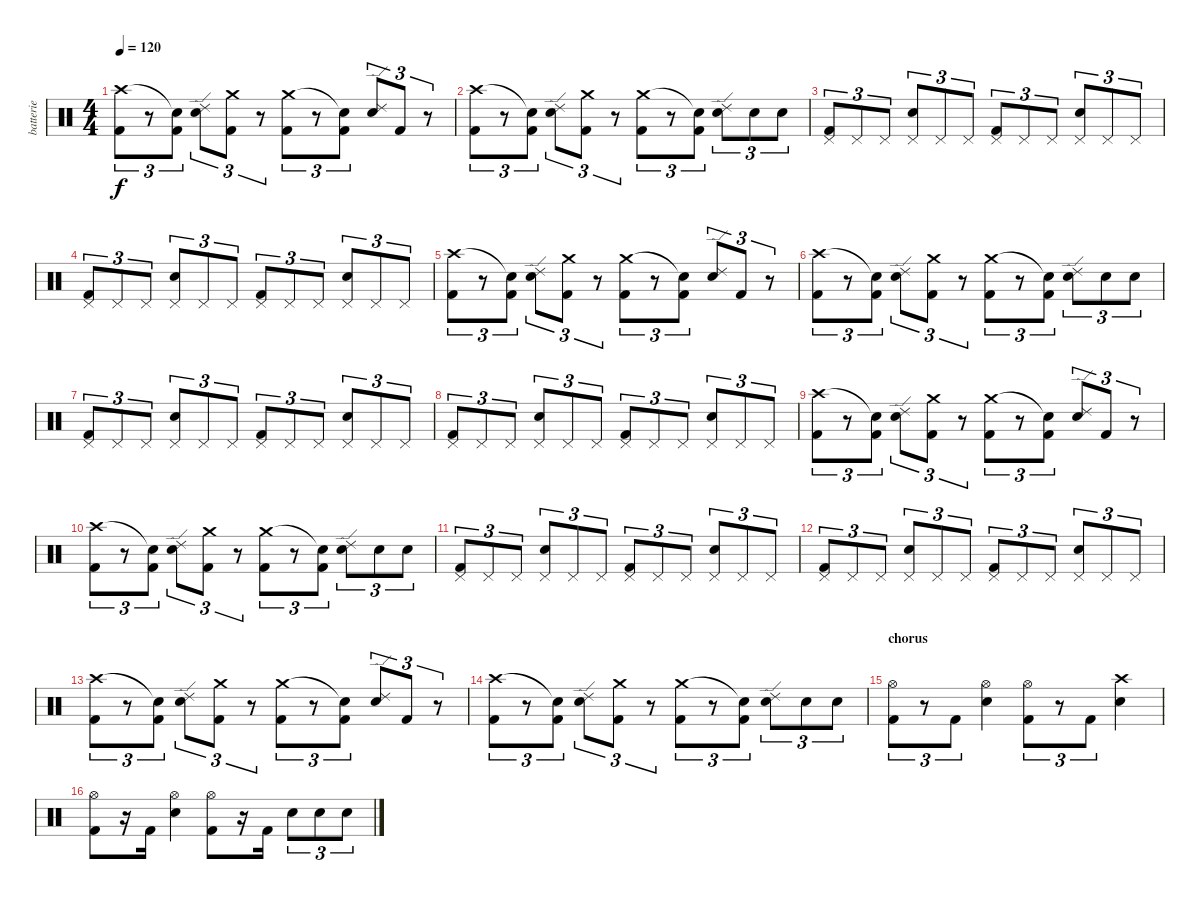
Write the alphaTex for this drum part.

\track ("batterie" "batterie") {instrument percussion}
\staff {score}
\articulation defaults
\ts (4 4)
\tempo 120
\clef neutral
\ks c
("Crash high (hit)" "Kick (hit) 2").8{tu (3 2) dy f} r.8{tu (3 2)} ("Snare (hit)"{t} "Kick (hit) 2").8{tu (3 2)} ("Snare (hit) 2" "Ride (edge) 2").8{tu (3 2)} ("Crash medium (hit)" "Kick (hit) 2").8{tu (3 2)} r.8{tu (3 2)} ("Crash medium (hit)" "Kick (hit) 2").8{tu (3 2)} r.8{tu (3 2)} ("Snare (hit)"{t} "Kick (hit) 2").8{tu (3 2)} ("Snare (hit) 2" "Ride (edge) 2").8{tu (3 2)} "Kick (hit) 2".8{tu (3 2)} r.8{tu (3 2)} |
("Crash high (hit)" "Kick (hit) 2").8{tu (3 2)} r.8{tu (3 2)} ("Snare (hit)"{t} "Kick (hit) 2").8{tu (3 2)} ("Snare (hit) 2" "Ride (edge) 2").8{tu (3 2)} ("Crash medium (hit)" "Kick (hit) 2").8{tu (3 2)} r.8{tu (3 2)} ("Crash medium (hit)" "Kick (hit) 2").8{tu (3 2)} r.8{tu (3 2)} ("Snare (hit)"{t} "Kick (hit) 2").8{tu (3 2)} ("Snare (hit) 2" "Ride (edge) 2").8{tu (3 2)} "Snare (hit) 2".8{tu (3 2)} "Snare (hit) 2".8{tu (3 2)} |
("Kick (hit) 2" "Pedal Hi-Hat (hit)").8{tu (3 2)} "Pedal Hi-Hat (hit)".8{tu (3 2)} "Pedal Hi-Hat (hit)".8{tu (3 2)} ("Snare (hit) 2" "Pedal Hi-Hat (hit)").8{tu (3 2)} "Pedal Hi-Hat (hit)".8{tu (3 2)} "Pedal Hi-Hat (hit)".8{tu (3 2)} ("Kick (hit) 2" "Pedal Hi-Hat (hit)").8{tu (3 2)} "Pedal Hi-Hat (hit)".8{tu (3 2)} "Pedal Hi-Hat (hit)".8{tu (3 2)} ("Snare (hit) 2" "Pedal Hi-Hat (hit)").8{tu (3 2)} "Pedal Hi-Hat (hit)".8{tu (3 2)} "Pedal Hi-Hat (hit)".8{tu (3 2)} |
("Kick (hit) 2" "Pedal Hi-Hat (hit)").8{tu (3 2)} "Pedal Hi-Hat (hit)".8{tu (3 2)} "Pedal Hi-Hat (hit)".8{tu (3 2)} ("Snare (hit) 2" "Pedal Hi-Hat (hit)").8{tu (3 2)} "Pedal Hi-Hat (hit)".8{tu (3 2)} "Pedal Hi-Hat (hit)".8{tu (3 2)} ("Kick (hit) 2" "Pedal Hi-Hat (hit)").8{tu (3 2)} "Pedal Hi-Hat (hit)".8{tu (3 2)} "Pedal Hi-Hat (hit)".8{tu (3 2)} ("Snare (hit) 2" "Pedal Hi-Hat (hit)").8{tu (3 2)} "Pedal Hi-Hat (hit)".8{tu (3 2)} "Pedal Hi-Hat (hit)".8{tu (3 2)} |
("Crash high (hit)" "Kick (hit) 2").8{tu (3 2)} r.8{tu (3 2)} ("Snare (hit)"{t} "Kick (hit) 2").8{tu (3 2)} ("Snare (hit) 2" "Ride (edge) 2").8{tu (3 2)} ("Crash medium (hit)" "Kick (hit) 2").8{tu (3 2)} r.8{tu (3 2)} ("Crash medium (hit)" "Kick (hit) 2").8{tu (3 2)} r.8{tu (3 2)} ("Snare (hit)"{t} "Kick (hit) 2").8{tu (3 2)} ("Snare (hit) 2" "Ride (edge) 2").8{tu (3 2)} "Kick (hit) 2".8{tu (3 2)} r.8{tu (3 2)} |
("Crash high (hit)" "Kick (hit) 2").8{tu (3 2)} r.8{tu (3 2)} ("Snare (hit)"{t} "Kick (hit) 2").8{tu (3 2)} ("Snare (hit) 2" "Ride (edge) 2").8{tu (3 2)} ("Crash medium (hit)" "Kick (hit) 2").8{tu (3 2)} r.8{tu (3 2)} ("Crash medium (hit)" "Kick (hit) 2").8{tu (3 2)} r.8{tu (3 2)} ("Snare (hit)"{t} "Kick (hit) 2").8{tu (3 2)} ("Snare (hit) 2" "Ride (edge) 2").8{tu (3 2)} "Snare (hit) 2".8{tu (3 2)} "Snare (hit) 2".8{tu (3 2)} |
("Kick (hit) 2" "Pedal Hi-Hat (hit)").8{tu (3 2)} "Pedal Hi-Hat (hit)".8{tu (3 2)} "Pedal Hi-Hat (hit)".8{tu (3 2)} ("Snare (hit) 2" "Pedal Hi-Hat (hit)").8{tu (3 2)} "Pedal Hi-Hat (hit)".8{tu (3 2)} "Pedal Hi-Hat (hit)".8{tu (3 2)} ("Kick (hit) 2" "Pedal Hi-Hat (hit)").8{tu (3 2)} "Pedal Hi-Hat (hit)".8{tu (3 2)} "Pedal Hi-Hat (hit)".8{tu (3 2)} ("Snare (hit) 2" "Pedal Hi-Hat (hit)").8{tu (3 2)} "Pedal Hi-Hat (hit)".8{tu (3 2)} "Pedal Hi-Hat (hit)".8{tu (3 2)} |
("Kick (hit) 2" "Pedal Hi-Hat (hit)").8{tu (3 2)} "Pedal Hi-Hat (hit)".8{tu (3 2)} "Pedal Hi-Hat (hit)".8{tu (3 2)} ("Snare (hit) 2" "Pedal Hi-Hat (hit)").8{tu (3 2)} "Pedal Hi-Hat (hit)".8{tu (3 2)} "Pedal Hi-Hat (hit)".8{tu (3 2)} ("Kick (hit) 2" "Pedal Hi-Hat (hit)").8{tu (3 2)} "Pedal Hi-Hat (hit)".8{tu (3 2)} "Pedal Hi-Hat (hit)".8{tu (3 2)} ("Snare (hit) 2" "Pedal Hi-Hat (hit)").8{tu (3 2)} "Pedal Hi-Hat (hit)".8{tu (3 2)} "Pedal Hi-Hat (hit)".8{tu (3 2)} |
("Crash high (hit)" "Kick (hit) 2").8{tu (3 2)} r.8{tu (3 2)} ("Snare (hit)"{t} "Kick (hit) 2").8{tu (3 2)} ("Snare (hit) 2" "Ride (edge) 2").8{tu (3 2)} ("Crash medium (hit)" "Kick (hit) 2").8{tu (3 2)} r.8{tu (3 2)} ("Crash medium (hit)" "Kick (hit) 2").8{tu (3 2)} r.8{tu (3 2)} ("Snare (hit)"{t} "Kick (hit) 2").8{tu (3 2)} ("Snare (hit) 2" "Ride (edge) 2").8{tu (3 2)} "Kick (hit) 2".8{tu (3 2)} r.8{tu (3 2)} |
("Crash high (hit)" "Kick (hit) 2").8{tu (3 2)} r.8{tu (3 2)} ("Snare (hit)"{t} "Kick (hit) 2").8{tu (3 2)} ("Snare (hit) 2" "Ride (edge) 2").8{tu (3 2)} ("Crash medium (hit)" "Kick (hit) 2").8{tu (3 2)} r.8{tu (3 2)} ("Crash medium (hit)" "Kick (hit) 2").8{tu (3 2)} r.8{tu (3 2)} ("Snare (hit)"{t} "Kick (hit) 2").8{tu (3 2)} ("Snare (hit) 2" "Ride (edge) 2").8{tu (3 2)} "Snare (hit) 2".8{tu (3 2)} "Snare (hit) 2".8{tu (3 2)} |
("Kick (hit) 2" "Pedal Hi-Hat (hit)").8{tu (3 2)} "Pedal Hi-Hat (hit)".8{tu (3 2)} "Pedal Hi-Hat (hit)".8{tu (3 2)} ("Snare (hit) 2" "Pedal Hi-Hat (hit)").8{tu (3 2)} "Pedal Hi-Hat (hit)".8{tu (3 2)} "Pedal Hi-Hat (hit)".8{tu (3 2)} ("Kick (hit) 2" "Pedal Hi-Hat (hit)").8{tu (3 2)} "Pedal Hi-Hat (hit)".8{tu (3 2)} "Pedal Hi-Hat (hit)".8{tu (3 2)} ("Snare (hit) 2" "Pedal Hi-Hat (hit)").8{tu (3 2)} "Pedal Hi-Hat (hit)".8{tu (3 2)} "Pedal Hi-Hat (hit)".8{tu (3 2)} |
("Kick (hit) 2" "Pedal Hi-Hat (hit)").8{tu (3 2)} "Pedal Hi-Hat (hit)".8{tu (3 2)} "Pedal Hi-Hat (hit)".8{tu (3 2)} ("Snare (hit) 2" "Pedal Hi-Hat (hit)").8{tu (3 2)} "Pedal Hi-Hat (hit)".8{tu (3 2)} "Pedal Hi-Hat (hit)".8{tu (3 2)} ("Kick (hit) 2" "Pedal Hi-Hat (hit)").8{tu (3 2)} "Pedal Hi-Hat (hit)".8{tu (3 2)} "Pedal Hi-Hat (hit)".8{tu (3 2)} ("Snare (hit) 2" "Pedal Hi-Hat (hit)").8{tu (3 2)} "Pedal Hi-Hat (hit)".8{tu (3 2)} "Pedal Hi-Hat (hit)".8{tu (3 2)} |
("Crash high (hit)" "Kick (hit) 2").8{tu (3 2)} r.8{tu (3 2)} ("Snare (hit)"{t} "Kick (hit) 2").8{tu (3 2)} ("Snare (hit) 2" "Ride (edge) 2").8{tu (3 2)} ("Crash medium (hit)" "Kick (hit) 2").8{tu (3 2)} r.8{tu (3 2)} ("Crash medium (hit)" "Kick (hit) 2").8{tu (3 2)} r.8{tu (3 2)} ("Snare (hit)"{t} "Kick (hit) 2").8{tu (3 2)} ("Snare (hit) 2" "Ride (edge) 2").8{tu (3 2)} "Kick (hit) 2".8{tu (3 2)} r.8{tu (3 2)} |
("Crash high (hit)" "Kick (hit) 2").8{tu (3 2)} r.8{tu (3 2)} ("Snare (hit)"{t} "Kick (hit) 2").8{tu (3 2)} ("Snare (hit) 2" "Ride (edge) 2").8{tu (3 2)} ("Crash medium (hit)" "Kick (hit) 2").8{tu (3 2)} r.8{tu (3 2)} ("Crash medium (hit)" "Kick (hit) 2").8{tu (3 2)} r.8{tu (3 2)} ("Snare (hit)"{t} "Kick (hit) 2").8{tu (3 2)} ("Snare (hit) 2" "Ride (edge) 2").8{tu (3 2)} "Snare (hit) 2".8{tu (3 2)} "Snare (hit) 2".8{tu (3 2)} |
\section ("" "chorus")
("Kick (hit) 2" "Hi-Hat (open)").8{tu (3 2)} r.8{tu (3 2)} "Kick (hit) 2".8{tu (3 2)} ("Snare (hit) 2" "Hi-Hat (open)").4 ("Kick (hit) 2" "Hi-Hat (open)").8{tu (3 2)} r.8{tu (3 2)} "Kick (hit) 2".8{tu (3 2)} ("Crash high (hit)" "Snare (hit) 2").4 |
("Kick (hit) 2" "Hi-Hat (open)").8 r.16 "Kick (hit) 2".16 ("Snare (hit) 2" "Hi-Hat (open)").4 ("Kick (hit) 2" "Hi-Hat (open)").8 r.16 "Kick (hit) 2".16 "Snare (hit) 2".8{tu (3 2)} "Snare (hit) 2".8{tu (3 2)} "Snare (hit) 2".8{tu (3 2)}
